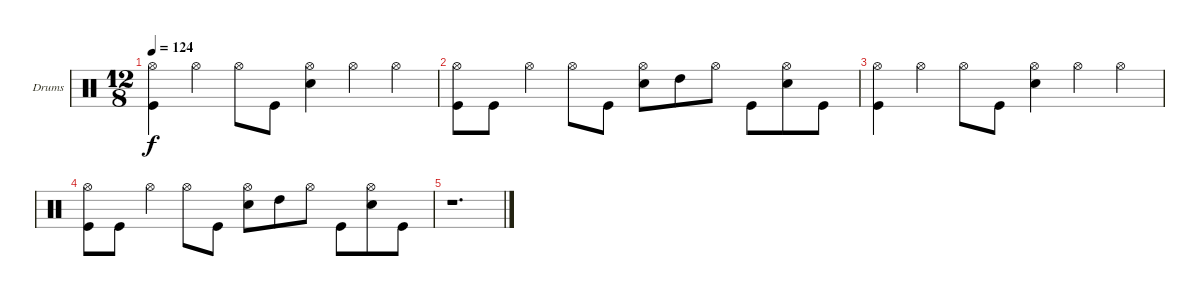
\defaultSystemsLayout 4
\bracketExtendMode groupsimilarinstruments
\firstSystemTrackNameOrientation horizontal
\otherSystemsTrackNameOrientation horizontal
\track ("Drumkit" "Drums") {instrument percussion}
\staff {score}
\articulation defaults
\ts (12 8)
\tempo 124
\clef neutral
\ks c
("Hi-Hat (open)" "Kick (hit)").4{dy f} "Hi-Hat (open)".4 "Hi-Hat (open)".8 "Kick (hit)".8 ("Hi-Hat (open)" "Snare (hit) 2").4 "Hi-Hat (open)".4 "Hi-Hat (open)".4 |
("Hi-Hat (open)" "Kick (hit)").8 "Kick (hit)".8 "Hi-Hat (open)".4 "Hi-Hat (open)".8 "Kick (hit)".8 ("Hi-Hat (open)" "Snare (hit) 2").8 "High Tom (hit)".8 "Hi-Hat (open)".8 "Kick (hit)".8 ("Hi-Hat (open)" "Snare (hit) 2").8 "Kick (hit)".8 |
("Hi-Hat (open)" "Kick (hit)").4 "Hi-Hat (open)".4 "Hi-Hat (open)".8 "Kick (hit)".8 ("Hi-Hat (open)" "Snare (hit) 2").4 "Hi-Hat (open)".4 "Hi-Hat (open)".4 |
("Hi-Hat (open)" "Kick (hit)").8 "Kick (hit)".8 "Hi-Hat (open)".4 "Hi-Hat (open)".8 "Kick (hit)".8 ("Hi-Hat (open)" "Snare (hit) 2").8 "High Tom (hit)".8 "Hi-Hat (open)".8 "Kick (hit)".8 ("Hi-Hat (open)" "Snare (hit) 2").8 "Kick (hit)".8 |
r.1{d}
